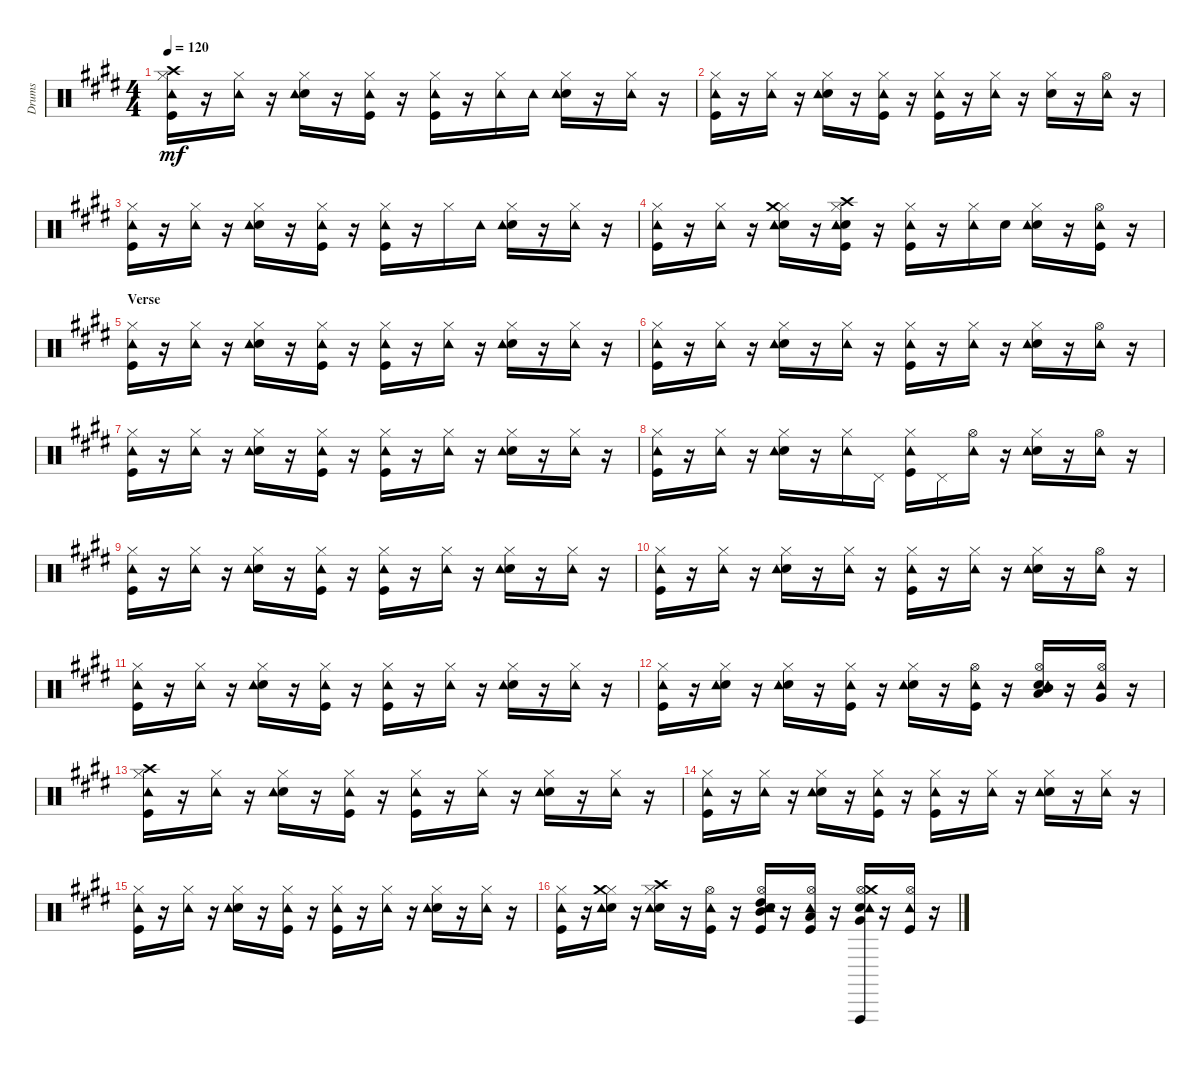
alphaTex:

\track ("Drums" "Drums") {instrument percussion}
\staff {score}
\articulation defaults
\ts (4 4)
\tempo 120
\clef neutral
\ks c#minor
("Kick (hit)" "Hi-Hat (closed)" "Crash high (hit)" "Tambourine (hit)").16{dy mf} r.16 ("Hi-Hat (closed)" "Tambourine (hit)").16 r.16 ("Snare (hit) 2" "Hi-Hat (closed)" "Tambourine (hit)").16 r.16 ("Kick (hit)" "Hi-Hat (closed)" "Tambourine (hit)").16 r.16 ("Kick (hit)" "Hi-Hat (closed)" "Tambourine (hit)").16 r.16 ("Hi-Hat (closed)" "Tambourine (hit)").16 "Tambourine (hit)".16 ("Snare (hit) 2" "Hi-Hat (closed)" "Tambourine (hit)").16 r.16 ("Hi-Hat (closed)" "Tambourine (hit)").16 r.16 |
("Kick (hit)" "Hi-Hat (closed)" "Tambourine (hit)").16 r.16 ("Hi-Hat (closed)" "Tambourine (hit)").16 r.16 ("Snare (hit) 2" "Hi-Hat (closed)" "Tambourine (hit)").16 r.16 ("Kick (hit)" "Hi-Hat (closed)" "Tambourine (hit)").16 r.16 ("Kick (hit)" "Hi-Hat (closed)" "Tambourine (hit)").16 r.16 ("Hi-Hat (closed)" "Tambourine (hit)").16 r.16 ("Snare (hit) 2" "Hi-Hat (closed)").16 r.16 ("Hi-Hat (open)" "Tambourine (hit)").16 r.16 |
("Kick (hit)" "Hi-Hat (closed)" "Tambourine (hit)").16 r.16 ("Hi-Hat (closed)" "Tambourine (hit)").16 r.16 ("Snare (hit) 2" "Hi-Hat (closed)" "Tambourine (hit)").16 r.16 ("Kick (hit)" "Hi-Hat (closed)" "Tambourine (hit)").16 r.16 ("Kick (hit)" "Hi-Hat (closed)" "Tambourine (hit)").16 r.16 "Hi-Hat (closed)".16 "Tambourine (hit)".16 ("Snare (hit) 2" "Hi-Hat (closed)" "Tambourine (hit)").16 r.16 ("Hi-Hat (closed)" "Tambourine (hit)").16 r.16 |
("Kick (hit)" "Hi-Hat (closed)" "Tambourine (hit)").16 r.16 ("Hi-Hat (closed)" "Tambourine (hit)").16 r.16 ("Snare (hit) 2" "Hi-Hat (closed)" "Tambourine (hit)" "Crash medium (hit)").16 r.16 ("Kick (hit)" "Snare (hit) 2" "Hi-Hat (closed)" "Crash high (hit)" "Tambourine (hit)").16 r.16 ("Kick (hit)" "Hi-Hat (closed)" "Tambourine (hit)").16 r.16 ("Hi-Hat (closed)" "Tambourine (hit)").16 "Snare (hit) 2".16 ("Snare (hit) 2" "Hi-Hat (closed)" "Tambourine (hit)").16 r.16 ("Kick (hit)" "Hi-Hat (open)" "Tambourine (hit)").16 r.16 |
\section ("" "Verse")
("Kick (hit)" "Hi-Hat (closed)" "Tambourine (hit)").16 r.16 ("Hi-Hat (closed)" "Tambourine (hit)").16 r.16 ("Snare (hit) 2" "Hi-Hat (closed)" "Tambourine (hit)").16 r.16 ("Kick (hit)" "Hi-Hat (closed)" "Tambourine (hit)").16 r.16 ("Kick (hit)" "Hi-Hat (closed)" "Tambourine (hit)").16 r.16 ("Hi-Hat (closed)" "Tambourine (hit)").16 r.16 ("Snare (hit) 2" "Hi-Hat (closed)" "Tambourine (hit)").16 r.16 ("Hi-Hat (closed)" "Tambourine (hit)").16 r.16 |
("Kick (hit)" "Hi-Hat (closed)" "Tambourine (hit)").16 r.16 ("Hi-Hat (closed)" "Tambourine (hit)").16 r.16 ("Snare (hit) 2" "Hi-Hat (closed)" "Tambourine (hit)").16 r.16 ("Hi-Hat (closed)" "Tambourine (hit)").16 r.16 ("Kick (hit)" "Hi-Hat (closed)" "Tambourine (hit)").16 r.16 ("Hi-Hat (closed)" "Tambourine (hit)").16 r.16 ("Snare (hit) 2" "Hi-Hat (closed)" "Tambourine (hit)").16 r.16 ("Hi-Hat (open)" "Tambourine (hit)").16 r.16 |
("Kick (hit)" "Hi-Hat (closed)" "Tambourine (hit)").16 r.16 ("Hi-Hat (closed)" "Tambourine (hit)").16 r.16 ("Snare (hit) 2" "Hi-Hat (closed)" "Tambourine (hit)").16 r.16 ("Kick (hit)" "Hi-Hat (closed)" "Tambourine (hit)").16 r.16 ("Kick (hit)" "Hi-Hat (closed)" "Tambourine (hit)").16 r.16 ("Hi-Hat (closed)" "Tambourine (hit)").16 r.16 ("Snare (hit) 2" "Hi-Hat (closed)" "Tambourine (hit)").16 r.16 ("Hi-Hat (closed)" "Tambourine (hit)").16 r.16 |
("Kick (hit)" "Hi-Hat (closed)" "Tambourine (hit)").16 r.16 ("Hi-Hat (closed)" "Tambourine (hit)").16 r.16 ("Snare (hit) 2" "Hi-Hat (closed)" "Tambourine (hit)").16 r.16 ("Hi-Hat (closed)" "Tambourine (hit)").16 "Pedal Hi-Hat (hit)".16 ("Kick (hit)" "Hi-Hat (closed)" "Tambourine (hit)").16 "Pedal Hi-Hat (hit)".16 ("Hi-Hat (open)" "Tambourine (hit)").16 r.16 ("Snare (hit) 2" "Hi-Hat (closed)" "Tambourine (hit)").16 r.16 ("Hi-Hat (open)" "Tambourine (hit)").16 r.16 |
("Kick (hit)" "Hi-Hat (closed)" "Tambourine (hit)").16 r.16 ("Hi-Hat (closed)" "Tambourine (hit)").16 r.16 ("Snare (hit) 2" "Hi-Hat (closed)" "Tambourine (hit)").16 r.16 ("Kick (hit)" "Hi-Hat (closed)" "Tambourine (hit)").16 r.16 ("Kick (hit)" "Hi-Hat (closed)" "Tambourine (hit)").16 r.16 ("Hi-Hat (closed)" "Tambourine (hit)").16 r.16 ("Snare (hit) 2" "Hi-Hat (closed)" "Tambourine (hit)").16 r.16 ("Hi-Hat (closed)" "Tambourine (hit)").16 r.16 |
("Kick (hit)" "Hi-Hat (closed)" "Tambourine (hit)").16 r.16 ("Hi-Hat (closed)" "Tambourine (hit)").16 r.16 ("Snare (hit) 2" "Hi-Hat (closed)" "Tambourine (hit)").16 r.16 ("Hi-Hat (closed)" "Tambourine (hit)").16 r.16 ("Kick (hit)" "Hi-Hat (closed)" "Tambourine (hit)").16 r.16 ("Hi-Hat (closed)" "Tambourine (hit)").16 r.16 ("Snare (hit) 2" "Hi-Hat (closed)" "Tambourine (hit)").16 r.16 ("Hi-Hat (open)" "Tambourine (hit)").16 r.16 |
("Kick (hit)" "Hi-Hat (closed)" "Tambourine (hit)").16 r.16 ("Hi-Hat (closed)" "Tambourine (hit)").16 r.16 ("Snare (hit) 2" "Hi-Hat (closed)" "Tambourine (hit)").16 r.16 ("Kick (hit)" "Hi-Hat (closed)" "Tambourine (hit)").16 r.16 ("Kick (hit)" "Hi-Hat (closed)" "Tambourine (hit)").16 r.16 ("Hi-Hat (closed)" "Tambourine (hit)").16 r.16 ("Snare (hit) 2" "Hi-Hat (closed)" "Tambourine (hit)").16 r.16 ("Hi-Hat (closed)" "Tambourine (hit)").16 r.16 |
("Kick (hit)" "Hi-Hat (closed)" "Tambourine (hit)").16 r.16 ("Snare (hit) 2" "Hi-Hat (closed)" "Tambourine (hit)").16 r.16 ("Snare (hit) 2" "Hi-Hat (closed)" "Tambourine (hit)").16 r.16 ("Kick (hit)" "Hi-Hat (closed)" "Tambourine (hit)").16 r.16 ("Snare (hit) 2" "Hi-Hat (closed)" "Tambourine (hit)").16 r.16 ("Kick (hit)" "Hi-Hat (open)" "Tambourine (hit)").16 r.16 ("Snare (hit) 2" "Low Tom (hit)" "Hi-Hat (open)" "Mid Tom (hit)" "Tambourine (hit)").16 r.16 ("Very Low Tom (hit)" "Hi-Hat (open)" "Tambourine (hit)").16 r.16 |
("Kick (hit)" "Hi-Hat (closed)" "Crash high (hit)" "Tambourine (hit)").16 r.16 ("Hi-Hat (closed)" "Tambourine (hit)").16 r.16 ("Snare (hit) 2" "Hi-Hat (closed)" "Tambourine (hit)").16 r.16 ("Kick (hit)" "Hi-Hat (closed)" "Tambourine (hit)").16 r.16 ("Kick (hit)" "Hi-Hat (closed)" "Tambourine (hit)").16 r.16 ("Hi-Hat (closed)" "Tambourine (hit)").16 r.16 ("Snare (hit) 2" "Hi-Hat (closed)" "Tambourine (hit)").16 r.16 ("Hi-Hat (closed)" "Tambourine (hit)").16 r.16 |
("Kick (hit)" "Hi-Hat (closed)" "Tambourine (hit)").16 r.16 ("Hi-Hat (closed)" "Tambourine (hit)").16 r.16 ("Snare (hit) 2" "Hi-Hat (closed)" "Tambourine (hit)").16 r.16 ("Kick (hit)" "Hi-Hat (closed)" "Tambourine (hit)").16 r.16 ("Kick (hit)" "Hi-Hat (closed)" "Tambourine (hit)").16 r.16 ("Hi-Hat (closed)" "Tambourine (hit)").16 r.16 ("Snare (hit) 2" "Hi-Hat (closed)" "Tambourine (hit)").16 r.16 ("Hi-Hat (closed)" "Tambourine (hit)").16 r.16 |
("Kick (hit)" "Hi-Hat (closed)" "Tambourine (hit)").16 r.16 ("Hi-Hat (closed)" "Tambourine (hit)").16 r.16 ("Snare (hit) 2" "Hi-Hat (closed)" "Tambourine (hit)").16 r.16 ("Kick (hit)" "Hi-Hat (closed)" "Tambourine (hit)").16 r.16 ("Kick (hit)" "Hi-Hat (closed)" "Tambourine (hit)").16 r.16 ("Hi-Hat (closed)" "Tambourine (hit)").16 r.16 ("Snare (hit) 2" "Hi-Hat (closed)" "Tambourine (hit)").16 r.16 ("Hi-Hat (closed)" "Tambourine (hit)").16 r.16 |
("Kick (hit)" "Hi-Hat (closed)" "Tambourine (hit)").16 r.16 ("Snare (hit) 2" "Hi-Hat (closed)" "Tambourine (hit)" "Crash medium (hit)").16 r.16 ("Snare (hit) 2" "Hi-Hat (closed)" "Crash high (hit)" "Tambourine (hit)").16 r.16 ("Kick (hit)" "Hi-Hat (open)" "Tambourine (hit)").16 r.16 ("Kick (hit)" "Snare (hit) 2" "Hi-Hat (open)" "Mid Tom (hit)" "High Tom (hit)" "Tambourine (hit)").16 r.16 ("Kick (hit)" "Low Tom (hit)" "Hi-Hat (open)" "Tambourine (hit)").16 r.16 ("Snare (hit) 2" "Very Low Tom (hit)" "Hi-Hat (open)" "Tambourine (hit)" "Crash medium (hit)" "Vibraslap (hit)").16 r.16 ("Kick (hit)" "Hi-Hat (open)" "Tambourine (hit)").16 r.16
